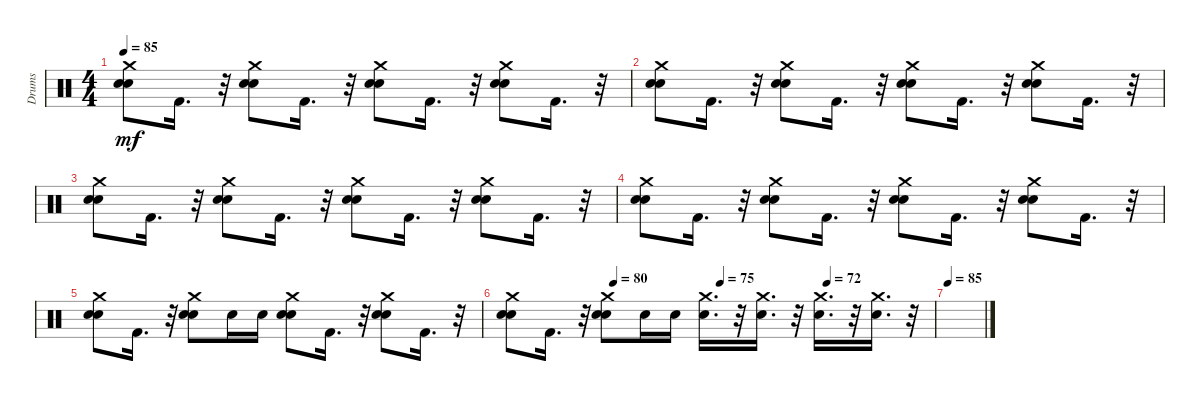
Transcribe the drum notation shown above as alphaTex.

\track ("Drums" "Drums") {instrument percussion}
\staff {score}
\articulation defaults
\ts (4 4)
\tempo 85
\clef neutral
\ks c
("Snare (hit) 2" "Electric Snare (hit)" "Crash medium (hit)").8{dy mf} "Kick (hit) 2".16{d} r.32 ("Electric Snare (hit)" "Snare (hit) 2" "Crash medium (hit)").8 "Kick (hit) 2".16{d} r.32 ("Snare (hit) 2" "Electric Snare (hit)" "Crash medium (hit)").8 "Kick (hit) 2".16{d} r.32 ("Snare (hit) 2" "Electric Snare (hit)" "Crash medium (hit)").8 "Kick (hit) 2".16{d} r.32 |
("Snare (hit) 2" "Electric Snare (hit)" "Crash medium (hit)").8 "Kick (hit) 2".16{d} r.32 ("Snare (hit) 2" "Electric Snare (hit)" "Crash medium (hit)").8 "Kick (hit) 2".16{d} r.32 ("Electric Snare (hit)" "Snare (hit) 2" "Crash medium (hit)").8 "Kick (hit) 2".16{d} r.32 ("Snare (hit) 2" "Electric Snare (hit)" "Crash medium (hit)").8 "Kick (hit) 2".16{d} r.32 |
("Snare (hit) 2" "Electric Snare (hit)" "Crash medium (hit)").8 "Kick (hit) 2".16{d} r.32 ("Electric Snare (hit)" "Snare (hit) 2" "Crash medium (hit)").8 "Kick (hit) 2".16{d} r.32 ("Snare (hit) 2" "Electric Snare (hit)" "Crash medium (hit)").8 "Kick (hit) 2".16{d} r.32 ("Snare (hit) 2" "Electric Snare (hit)" "Crash medium (hit)").8 "Kick (hit) 2".16{d} r.32 |
("Snare (hit) 2" "Electric Snare (hit)" "Crash medium (hit)").8 "Kick (hit) 2".16{d} r.32 ("Snare (hit) 2" "Electric Snare (hit)" "Crash medium (hit)").8 "Kick (hit) 2".16{d} r.32 ("Electric Snare (hit)" "Snare (hit) 2" "Crash medium (hit)").8 "Kick (hit) 2".16{d} r.32 ("Snare (hit) 2" "Electric Snare (hit)" "Crash medium (hit)").8 "Kick (hit) 2".16{d} r.32 |
("Electric Snare (hit)" "Snare (hit) 2" "Crash medium (hit)").8 "Kick (hit) 2".16{d} r.32 ("Electric Snare (hit)" "Snare (hit) 2" "Crash medium (hit)").8 "Electric Snare (hit)".16 "Snare (hit) 2".16 ("Snare (hit) 2" "Electric Snare (hit)" "Crash medium (hit)").8 "Kick (hit) 2".16{d} r.32 ("Snare (hit) 2" "Electric Snare (hit)" "Crash medium (hit)").8 "Kick (hit) 2".16{d} r.32 |
\tempo (80 0.25)
\tempo (75 0.5)
\tempo (72 0.75)
("Snare (hit) 2" "Electric Snare (hit)" "Crash medium (hit)").8 "Kick (hit) 2".16{d} r.32 ("Snare (hit) 2" "Electric Snare (hit)" "Crash medium (hit)").8 "Snare (hit) 2".16 "Snare (hit) 2".16 ("Snare (hit) 2" "Crash medium (hit)").16{d} r.32 ("Snare (hit) 2" "Crash medium (hit)").16{d} r.32 ("Electric Snare (hit)" "Crash medium (hit)").16{d} r.32 ("Snare (hit) 2" "Crash medium (hit)").16{d} r.32 |
\tempo 85
